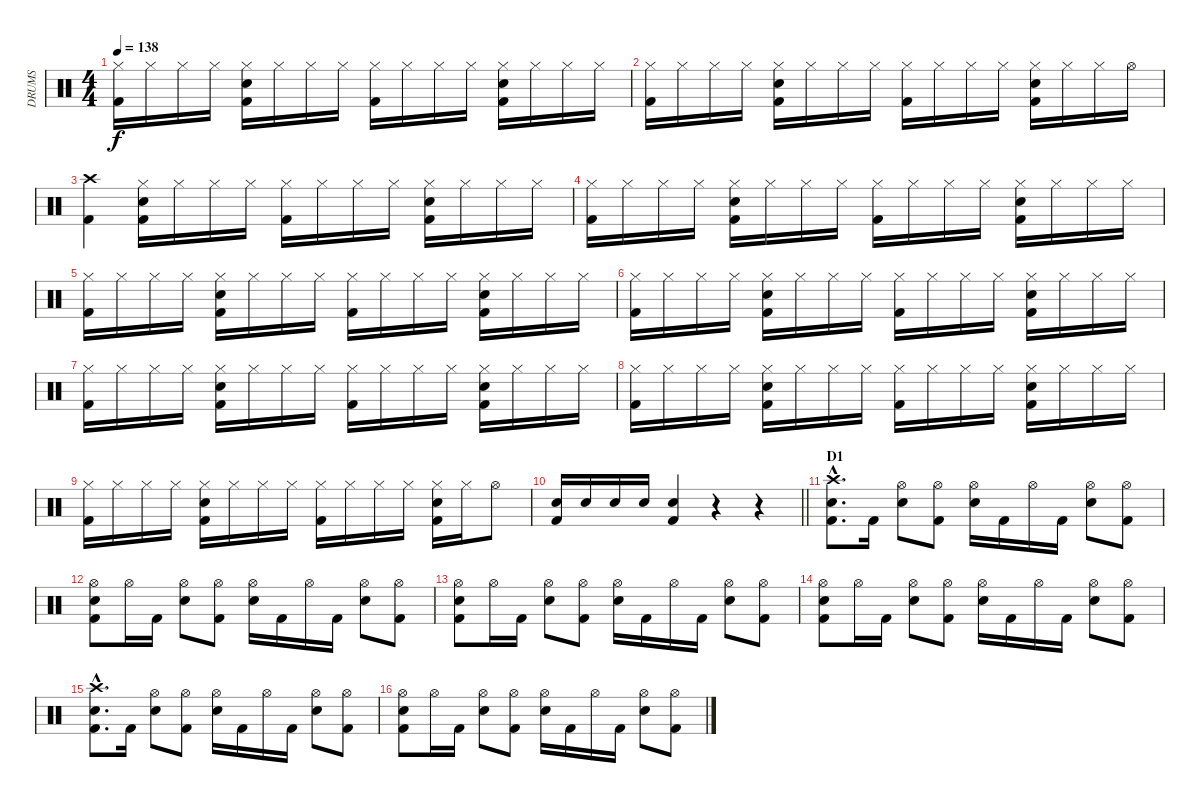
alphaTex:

\track ("DRUMS" "DRUMS") {instrument percussion}
\staff {score}
\articulation defaults
\ts (4 4)
\tempo 138
\clef neutral
\ks c
("Hi-Hat (closed)" "Kick (hit) 2").16{dy f} "Hi-Hat (closed)".16 "Hi-Hat (closed)".16 "Hi-Hat (closed)".16 ("Hi-Hat (closed)" "Kick (hit) 2" "Snare (hit) 2").16 "Hi-Hat (closed)".16 "Hi-Hat (closed)".16 "Hi-Hat (closed)".16 ("Hi-Hat (closed)" "Kick (hit) 2").16 "Hi-Hat (closed)".16 "Hi-Hat (closed)".16 "Hi-Hat (closed)".16 ("Hi-Hat (closed)" "Kick (hit) 2" "Snare (hit) 2").16 "Hi-Hat (closed)".16 "Hi-Hat (closed)".16 "Hi-Hat (closed)".16 |
("Hi-Hat (closed)" "Kick (hit) 2").16 "Hi-Hat (closed)".16 "Hi-Hat (closed)".16 "Hi-Hat (closed)".16 ("Hi-Hat (closed)" "Kick (hit) 2" "Snare (hit) 2").16 "Hi-Hat (closed)".16 "Hi-Hat (closed)".16 "Hi-Hat (closed)".16 ("Hi-Hat (closed)" "Kick (hit) 2").16 "Hi-Hat (closed)".16 "Hi-Hat (closed)".16 "Hi-Hat (closed)".16 ("Hi-Hat (closed)" "Kick (hit) 2" "Snare (hit) 2").16 "Hi-Hat (closed)".16 "Hi-Hat (closed)".16 "Hi-Hat (open)".16 |
("Crash high (hit)" "Kick (hit) 2").4 ("Hi-Hat (closed)" "Kick (hit) 2" "Snare (hit) 2").16 "Hi-Hat (closed)".16 "Hi-Hat (closed)".16 "Hi-Hat (closed)".16 ("Hi-Hat (closed)" "Kick (hit) 2").16 "Hi-Hat (closed)".16 "Hi-Hat (closed)".16 "Hi-Hat (closed)".16 ("Hi-Hat (closed)" "Kick (hit) 2" "Snare (hit) 2").16 "Hi-Hat (closed)".16 "Hi-Hat (closed)".16 "Hi-Hat (closed)".16 |
("Hi-Hat (closed)" "Kick (hit) 2").16 "Hi-Hat (closed)".16 "Hi-Hat (closed)".16 "Hi-Hat (closed)".16 ("Hi-Hat (closed)" "Kick (hit) 2" "Snare (hit) 2").16 "Hi-Hat (closed)".16 "Hi-Hat (closed)".16 "Hi-Hat (closed)".16 ("Hi-Hat (closed)" "Kick (hit) 2").16 "Hi-Hat (closed)".16 "Hi-Hat (closed)".16 "Hi-Hat (closed)".16 ("Hi-Hat (closed)" "Kick (hit) 2" "Snare (hit) 2").16 "Hi-Hat (closed)".16 "Hi-Hat (closed)".16 "Hi-Hat (closed)".16 |
("Hi-Hat (closed)" "Kick (hit) 2").16 "Hi-Hat (closed)".16 "Hi-Hat (closed)".16 "Hi-Hat (closed)".16 ("Hi-Hat (closed)" "Kick (hit) 2" "Snare (hit) 2").16 "Hi-Hat (closed)".16 "Hi-Hat (closed)".16 "Hi-Hat (closed)".16 ("Hi-Hat (closed)" "Kick (hit) 2").16 "Hi-Hat (closed)".16 "Hi-Hat (closed)".16 "Hi-Hat (closed)".16 ("Hi-Hat (closed)" "Kick (hit) 2" "Snare (hit) 2").16 "Hi-Hat (closed)".16 "Hi-Hat (closed)".16 "Hi-Hat (closed)".16 |
("Hi-Hat (closed)" "Kick (hit) 2").16 "Hi-Hat (closed)".16 "Hi-Hat (closed)".16 "Hi-Hat (closed)".16 ("Hi-Hat (closed)" "Kick (hit) 2" "Snare (hit) 2").16 "Hi-Hat (closed)".16 "Hi-Hat (closed)".16 "Hi-Hat (closed)".16 ("Hi-Hat (closed)" "Kick (hit) 2").16 "Hi-Hat (closed)".16 "Hi-Hat (closed)".16 "Hi-Hat (closed)".16 ("Hi-Hat (closed)" "Kick (hit) 2" "Snare (hit) 2").16 "Hi-Hat (closed)".16 "Hi-Hat (closed)".16 "Hi-Hat (closed)".16 |
("Hi-Hat (closed)" "Kick (hit) 2").16 "Hi-Hat (closed)".16 "Hi-Hat (closed)".16 "Hi-Hat (closed)".16 ("Hi-Hat (closed)" "Kick (hit) 2" "Snare (hit) 2").16 "Hi-Hat (closed)".16 "Hi-Hat (closed)".16 "Hi-Hat (closed)".16 ("Hi-Hat (closed)" "Kick (hit) 2").16 "Hi-Hat (closed)".16 "Hi-Hat (closed)".16 "Hi-Hat (closed)".16 ("Hi-Hat (closed)" "Kick (hit) 2" "Snare (hit) 2").16 "Hi-Hat (closed)".16 "Hi-Hat (closed)".16 "Hi-Hat (closed)".16 |
("Hi-Hat (closed)" "Kick (hit) 2").16 "Hi-Hat (closed)".16 "Hi-Hat (closed)".16 "Hi-Hat (closed)".16 ("Hi-Hat (closed)" "Kick (hit) 2" "Snare (hit) 2").16 "Hi-Hat (closed)".16 "Hi-Hat (closed)".16 "Hi-Hat (closed)".16 ("Hi-Hat (closed)" "Kick (hit) 2").16 "Hi-Hat (closed)".16 "Hi-Hat (closed)".16 "Hi-Hat (closed)".16 ("Hi-Hat (closed)" "Kick (hit) 2" "Snare (hit) 2").16 "Hi-Hat (closed)".16 "Hi-Hat (closed)".16 "Hi-Hat (closed)".16 |
("Hi-Hat (closed)" "Kick (hit) 2").16 "Hi-Hat (closed)".16 "Hi-Hat (closed)".16 "Hi-Hat (closed)".16 ("Hi-Hat (closed)" "Kick (hit) 2" "Snare (hit) 2").16 "Hi-Hat (closed)".16 "Hi-Hat (closed)".16 "Hi-Hat (closed)".16 ("Hi-Hat (closed)" "Kick (hit) 2").16 "Hi-Hat (closed)".16 "Hi-Hat (closed)".16 "Hi-Hat (closed)".16 ("Hi-Hat (closed)" "Kick (hit) 2" "Snare (hit) 2").16 "Hi-Hat (closed)".16 "Hi-Hat (open)".8 |
\barLineRight lightlight
("Snare (hit) 2" "Kick (hit) 2").16 "Snare (hit) 2".16 "Snare (hit) 2".16 "Snare (hit) 2".16 ("Snare (hit) 2" "Kick (hit) 2").4 r.4 r.4 |
\section ("" "D1")
("Crash high (hit)"{hac} "Snare (hit) 2"{hac} "Kick (hit) 2"{hac}).8{d} "Kick (hit) 2".16 ("Hi-Hat (open)" "Snare (hit) 2").8 ("Hi-Hat (open)" "Kick (hit) 2").8 ("Hi-Hat (open)" "Snare (hit) 2").16 "Kick (hit) 2".16 "Hi-Hat (open)".16 "Kick (hit) 2".16 ("Hi-Hat (open)" "Snare (hit) 2").8 ("Hi-Hat (open)" "Kick (hit) 2").8 |
("Hi-Hat (open)" "Snare (hit) 2" "Kick (hit) 2").8 "Hi-Hat (open)".16 "Kick (hit) 2".16 ("Hi-Hat (open)" "Snare (hit) 2").8 ("Hi-Hat (open)" "Kick (hit) 2").8 ("Hi-Hat (open)" "Snare (hit) 2").16 "Kick (hit) 2".16 "Hi-Hat (open)".16 "Kick (hit) 2".16 ("Hi-Hat (open)" "Snare (hit) 2").8 ("Hi-Hat (open)" "Kick (hit) 2").8 |
("Hi-Hat (open)" "Snare (hit) 2" "Kick (hit) 2").8 "Hi-Hat (open)".16 "Kick (hit) 2".16 ("Hi-Hat (open)" "Snare (hit) 2").8 ("Hi-Hat (open)" "Kick (hit) 2").8 ("Hi-Hat (open)" "Snare (hit) 2").16 "Kick (hit) 2".16 "Hi-Hat (open)".16 "Kick (hit) 2".16 ("Hi-Hat (open)" "Snare (hit) 2").8 ("Hi-Hat (open)" "Kick (hit) 2").8 |
("Hi-Hat (open)" "Snare (hit) 2" "Kick (hit) 2").8 "Hi-Hat (open)".16 "Kick (hit) 2".16 ("Hi-Hat (open)" "Snare (hit) 2").8 ("Hi-Hat (open)" "Kick (hit) 2").8 ("Hi-Hat (open)" "Snare (hit) 2").16 "Kick (hit) 2".16 "Hi-Hat (open)".16 "Kick (hit) 2".16 ("Hi-Hat (open)" "Snare (hit) 2").8 ("Hi-Hat (open)" "Kick (hit) 2").8 |
("Crash high (hit)"{hac} "Snare (hit) 2"{hac} "Kick (hit) 2"{hac}).8{d} "Kick (hit) 2".16 ("Hi-Hat (open)" "Snare (hit) 2").8 ("Hi-Hat (open)" "Kick (hit) 2").8 ("Hi-Hat (open)" "Snare (hit) 2").16 "Kick (hit) 2".16 "Hi-Hat (open)".16 "Kick (hit) 2".16 ("Hi-Hat (open)" "Snare (hit) 2").8 ("Hi-Hat (open)" "Kick (hit) 2").8 |
("Hi-Hat (open)" "Snare (hit) 2" "Kick (hit) 2").8 "Hi-Hat (open)".16 "Kick (hit) 2".16 ("Hi-Hat (open)" "Snare (hit) 2").8 ("Hi-Hat (open)" "Kick (hit) 2").8 ("Hi-Hat (open)" "Snare (hit) 2").16 "Kick (hit) 2".16 "Hi-Hat (open)".16 "Kick (hit) 2".16 ("Hi-Hat (open)" "Snare (hit) 2").8 ("Hi-Hat (open)" "Kick (hit) 2").8
